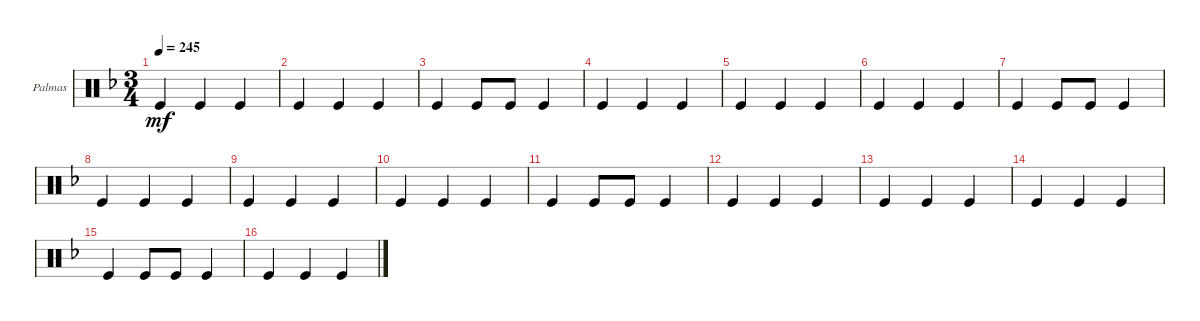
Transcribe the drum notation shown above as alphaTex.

\defaultSystemsLayout 4
\bracketExtendMode groupsimilarinstruments
\firstSystemTrackNameOrientation horizontal
\otherSystemsTrackNameOrientation horizontal
\track ("Palmas" "Palmas") {instrument percussion}
\staff {score}
\articulation defaults
\ts (3 4)
\tempo 245
\clef neutral
\ks f "Kick (hit)".4{dy mf} "Kick (hit)".4 "Kick (hit)".4
|
"Kick (hit)".4 "Kick (hit)".4 "Kick (hit)".4 |
"Kick (hit)".4 "Kick (hit)".8 "Kick (hit)".8 "Kick (hit)".4 |
"Kick (hit)".4 "Kick (hit)".4 "Kick (hit)".4 |
"Kick (hit)".4 "Kick (hit)".4 "Kick (hit)".4 |
"Kick (hit)".4 "Kick (hit)".4 "Kick (hit)".4 |
"Kick (hit)".4 "Kick (hit)".8 "Kick (hit)".8 "Kick (hit)".4 |
"Kick (hit)".4 "Kick (hit)".4 "Kick (hit)".4 |
"Kick (hit)".4 "Kick (hit)".4 "Kick (hit)".4 |
"Kick (hit)".4 "Kick (hit)".4 "Kick (hit)".4 |
"Kick (hit)".4 "Kick (hit)".8 "Kick (hit)".8 "Kick (hit)".4 |
"Kick (hit)".4 "Kick (hit)".4 "Kick (hit)".4 |
"Kick (hit)".4 "Kick (hit)".4 "Kick (hit)".4 |
"Kick (hit)".4 "Kick (hit)".4 "Kick (hit)".4 |
"Kick (hit)".4 "Kick (hit)".8 "Kick (hit)".8 "Kick (hit)".4 |
"Kick (hit)".4 "Kick (hit)".4 "Kick (hit)".4
